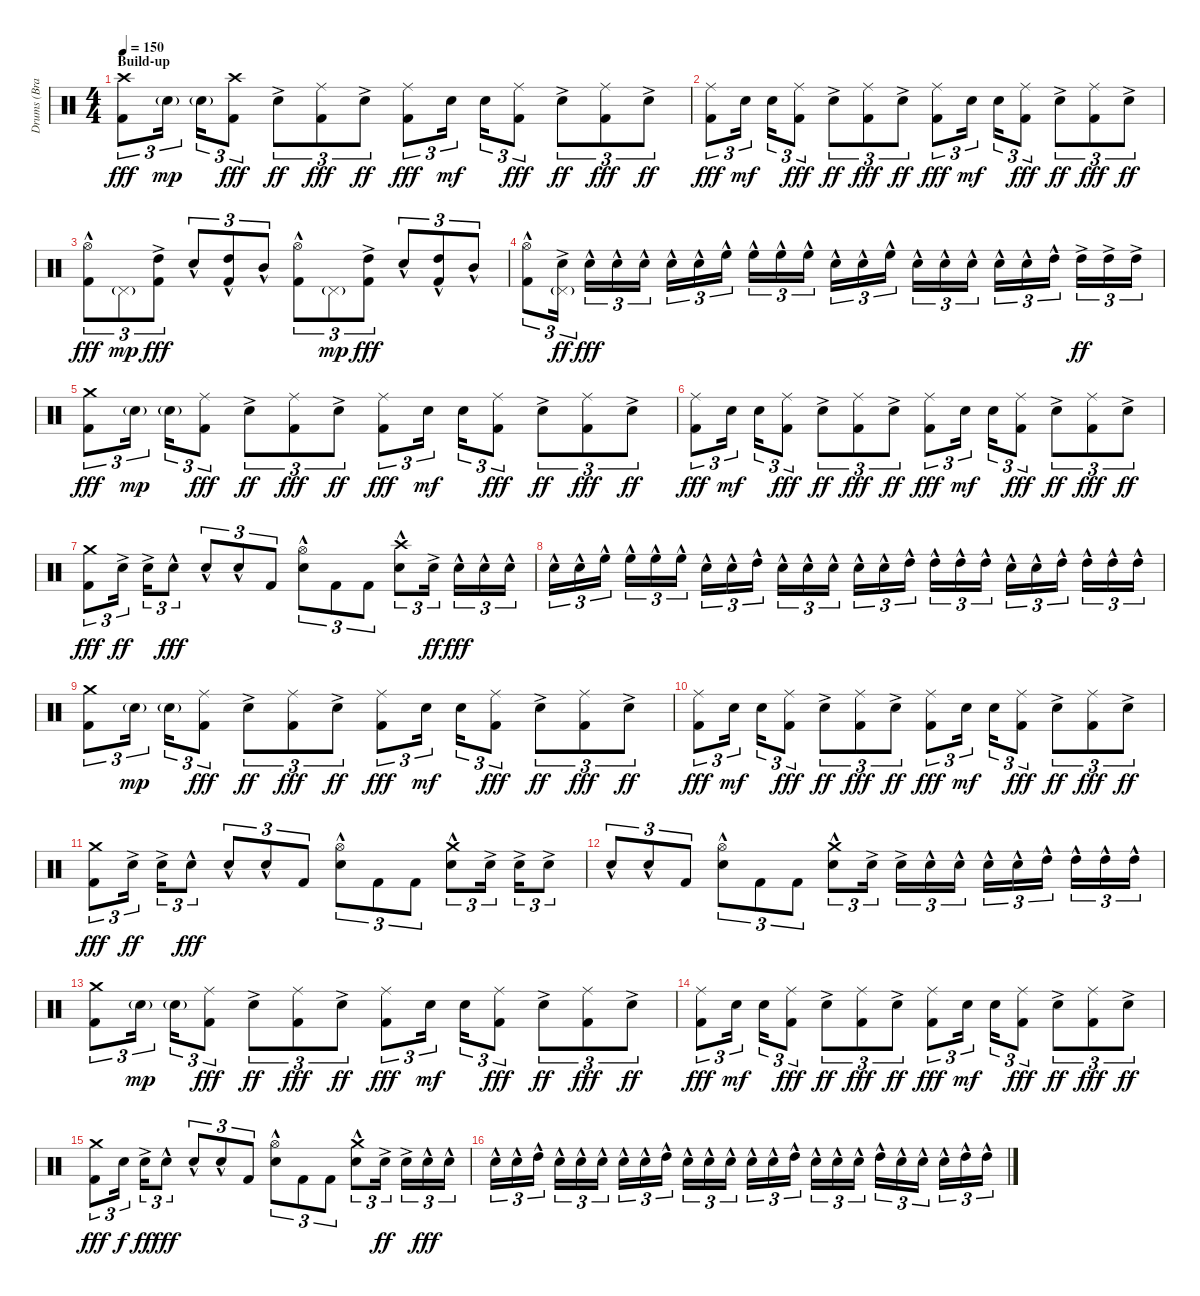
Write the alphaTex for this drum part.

\track ("Drums (Brann Dailor)" "Drums (Bra") {instrument percussion}
\staff {score}
\articulation defaults
\ts (4 4)
\section ("" "Build-up")
\tempo 150
\clef neutral
\ks c
("Crash high (hit)" "Kick (hit) 2").8{tu (3 2) dy fff} "Electric Snare (hit)"{g}.16{tu (3 2) dy mp beam splitsecondary} "Electric Snare (hit)"{g}.16{tu (3 2)} ("Crash high (hit)" "Kick (hit) 2").8{tu (3 2) dy fff} "Electric Snare (hit)"{ac}.8{tu (3 2) dy ff} ("Ride (middle)" "Kick (hit) 2").8{tu (3 2) dy fff} "Electric Snare (hit)"{ac}.8{tu (3 2) dy ff} ("Ride (middle)" "Kick (hit) 2").8{tu (3 2) dy fff} "Electric Snare (hit)".16{tu (3 2) dy mf beam splitsecondary} "Electric Snare (hit)".16{tu (3 2)} ("Ride (middle)" "Kick (hit) 2").8{tu (3 2) dy fff} "Electric Snare (hit)"{ac}.8{tu (3 2) dy ff} ("Ride (middle)" "Kick (hit) 2").8{tu (3 2) dy fff} "Electric Snare (hit)"{ac}.8{tu (3 2) dy ff} |
("Ride (middle)" "Kick (hit) 2").8{tu (3 2) dy fff} "Electric Snare (hit)".16{tu (3 2) dy mf beam splitsecondary} "Electric Snare (hit)".16{tu (3 2)} ("Ride (middle)" "Kick (hit) 2").8{tu (3 2) dy fff} "Electric Snare (hit)"{ac}.8{tu (3 2) dy ff} ("Ride (middle)" "Kick (hit) 2").8{tu (3 2) dy fff} "Electric Snare (hit)"{ac}.8{tu (3 2) dy ff} ("Ride (middle)" "Kick (hit) 2").8{tu (3 2) dy fff} "Electric Snare (hit)".16{tu (3 2) dy mf beam splitsecondary} "Electric Snare (hit)".16{tu (3 2)} ("Ride (middle)" "Kick (hit) 2").8{tu (3 2) dy fff} "Electric Snare (hit)"{ac}.8{tu (3 2) dy ff} ("Ride (middle)" "Kick (hit) 2").8{tu (3 2) dy fff} "Electric Snare (hit)"{ac}.8{tu (3 2) dy ff} |
("Hi-Hat (open)"{hac} "Kick (hit) 2").8{tu (3 2) dy fff} "Pedal Hi-Hat (hit)"{g}.8{tu (3 2) dy mp} ("High Tom (hit)"{ac} "Kick (hit) 2").8{tu (3 2) dy fff} "Electric Snare (hit)"{hac}.8{tu (3 2)} ("High Tom (hit)"{hac} "Kick (hit) 2").8{tu (3 2)} "Mid Tom (hit)"{hac}.8{tu (3 2)} ("Hi-Hat (open)"{hac} "Kick (hit) 2").8{tu (3 2)} "Pedal Hi-Hat (hit)"{g}.8{tu (3 2) dy mp} ("High Tom (hit)"{ac} "Kick (hit) 2").8{tu (3 2) dy fff} "Electric Snare (hit)"{hac}.8{tu (3 2)} ("High Tom (hit)"{hac} "Kick (hit) 2").8{tu (3 2)} "Mid Tom (hit)"{hac}.8{tu (3 2)} |
("Hi-Hat (open)"{hac} "Kick (hit) 2").8{tu (3 2)} ("Pedal Hi-Hat (hit)"{g} "Electric Snare (hit)"{ac}).16{tu (3 2) dy ff beam splitsecondary} "Electric Snare (hit)"{hac}.16{tu (3 2) dy fff} "Electric Snare (hit)"{hac}.16{tu (3 2)} "Electric Snare (hit)"{hac}.16{tu (3 2)} "Electric Snare (hit)"{hac}.16{tu (3 2)} "Electric Snare (hit)"{hac}.16{tu (3 2)} "High Floor Tom (hit)"{hac}.16{tu (3 2) beam splitsecondary} "High Floor Tom (hit)"{hac}.16{tu (3 2)} "High Floor Tom (hit)"{hac}.16{tu (3 2)} "High Floor Tom (hit)"{hac}.16{tu (3 2)} "Electric Snare (hit)"{hac}.16{tu (3 2)} "Electric Snare (hit)"{hac}.16{tu (3 2)} "High Floor Tom (hit)"{hac}.16{tu (3 2) beam splitsecondary} "Electric Snare (hit)"{hac}.16{tu (3 2)} "Electric Snare (hit)"{hac}.16{tu (3 2)} "Electric Snare (hit)"{hac}.16{tu (3 2)} "Electric Snare (hit)"{hac}.16{tu (3 2)} "Electric Snare (hit)"{hac}.16{tu (3 2)} "High Tom (hit)"{hac}.16{tu (3 2) beam splitsecondary} "High Tom (hit)"{ac}.16{tu (3 2) dy ff} "High Tom (hit)"{ac}.16{tu (3 2)} "High Tom (hit)"{ac}.16{tu (3 2)} |
("Crash medium (hit)" "Kick (hit) 2").8{tu (3 2) dy fff} "Electric Snare (hit)"{g}.16{tu (3 2) dy mp beam splitsecondary} "Electric Snare (hit)"{g}.16{tu (3 2)} ("Ride (middle)" "Kick (hit) 2").8{tu (3 2) dy fff} "Electric Snare (hit)"{ac}.8{tu (3 2) dy ff} ("Ride (middle)" "Kick (hit) 2").8{tu (3 2) dy fff} "Electric Snare (hit)"{ac}.8{tu (3 2) dy ff} ("Ride (middle)" "Kick (hit) 2").8{tu (3 2) dy fff} "Electric Snare (hit)".16{tu (3 2) dy mf beam splitsecondary} "Electric Snare (hit)".16{tu (3 2)} ("Ride (middle)" "Kick (hit) 2").8{tu (3 2) dy fff} "Electric Snare (hit)"{ac}.8{tu (3 2) dy ff} ("Ride (middle)" "Kick (hit) 2").8{tu (3 2) dy fff} "Electric Snare (hit)"{ac}.8{tu (3 2) dy ff} |
("Ride (middle)" "Kick (hit) 2").8{tu (3 2) dy fff} "Electric Snare (hit)".16{tu (3 2) dy mf beam splitsecondary} "Electric Snare (hit)".16{tu (3 2)} ("Ride (middle)" "Kick (hit) 2").8{tu (3 2) dy fff} "Electric Snare (hit)"{ac}.8{tu (3 2) dy ff} ("Ride (middle)" "Kick (hit) 2").8{tu (3 2) dy fff} "Electric Snare (hit)"{ac}.8{tu (3 2) dy ff} ("Ride (middle)" "Kick (hit) 2").8{tu (3 2) dy fff} "Electric Snare (hit)".16{tu (3 2) dy mf beam splitsecondary} "Electric Snare (hit)".16{tu (3 2)} ("Ride (middle)" "Kick (hit) 2").8{tu (3 2) dy fff} "Electric Snare (hit)"{ac}.8{tu (3 2) dy ff} ("Ride (middle)" "Kick (hit) 2").8{tu (3 2) dy fff} "Electric Snare (hit)"{ac}.8{tu (3 2) dy ff} |
("Crash medium (hit)" "Kick (hit) 2").8{tu (3 2) dy fff} "Electric Snare (hit)"{ac}.16{tu (3 2) dy ff beam splitsecondary} "Electric Snare (hit)"{ac}.16{tu (3 2)} "Electric Snare (hit)"{hac}.8{tu (3 2) dy fff} "Electric Snare (hit)"{hac}.8{tu (3 2)} "Electric Snare (hit)"{hac}.8{tu (3 2)} "Kick (hit) 2".8{tu (3 2)} ("Hi-Hat (open)"{hac} "Electric Snare (hit)"{hac}).8{tu (3 2)} "Kick (hit) 2".8{tu (3 2)} "Kick (hit) 2".8{tu (3 2)} ("Crash high (hit)" "Electric Snare (hit)"{hac}).8{tu (3 2)} "Electric Snare (hit)"{ac}.16{tu (3 2) dy ff beam splitsecondary} "Electric Snare (hit)"{hac}.16{tu (3 2) dy fff} "Electric Snare (hit)"{hac}.16{tu (3 2)} "Electric Snare (hit)"{hac}.16{tu (3 2)} |
"Electric Snare (hit)"{hac}.16{tu (3 2)} "Electric Snare (hit)"{hac}.16{tu (3 2)} "High Floor Tom (hit)"{hac}.16{tu (3 2) beam splitsecondary} "High Floor Tom (hit)"{hac}.16{tu (3 2)} "High Floor Tom (hit)"{hac}.16{tu (3 2)} "High Floor Tom (hit)"{hac}.16{tu (3 2)} "Electric Snare (hit)"{hac}.16{tu (3 2)} "Electric Snare (hit)"{hac}.16{tu (3 2)} "High Tom (hit)"{hac}.16{tu (3 2) beam splitsecondary} "Electric Snare (hit)"{hac}.16{tu (3 2)} "Electric Snare (hit)"{hac}.16{tu (3 2)} "Electric Snare (hit)"{hac}.16{tu (3 2)} "Electric Snare (hit)"{hac}.16{tu (3 2)} "Electric Snare (hit)"{hac}.16{tu (3 2)} "High Tom (hit)"{hac}.16{tu (3 2) beam splitsecondary} "High Tom (hit)"{hac}.16{tu (3 2)} "High Tom (hit)"{hac}.16{tu (3 2)} "High Tom (hit)"{hac}.16{tu (3 2)} "Electric Snare (hit)"{hac}.16{tu (3 2)} "Electric Snare (hit)"{hac}.16{tu (3 2)} "High Tom (hit)"{hac}.16{tu (3 2) beam splitsecondary} "High Tom (hit)"{hac}.16{tu (3 2)} "High Tom (hit)"{hac}.16{tu (3 2)} "High Tom (hit)"{hac}.16{tu (3 2)} |
("Crash medium (hit)" "Kick (hit) 2").8{tu (3 2)} "Electric Snare (hit)"{g}.16{tu (3 2) dy mp beam splitsecondary} "Electric Snare (hit)"{g}.16{tu (3 2)} ("Ride (middle)" "Kick (hit) 2").8{tu (3 2) dy fff} "Electric Snare (hit)"{ac}.8{tu (3 2) dy ff} ("Ride (middle)" "Kick (hit) 2").8{tu (3 2) dy fff} "Electric Snare (hit)"{ac}.8{tu (3 2) dy ff} ("Ride (middle)" "Kick (hit) 2").8{tu (3 2) dy fff} "Electric Snare (hit)".16{tu (3 2) dy mf beam splitsecondary} "Electric Snare (hit)".16{tu (3 2)} ("Ride (middle)" "Kick (hit) 2").8{tu (3 2) dy fff} "Electric Snare (hit)"{ac}.8{tu (3 2) dy ff} ("Ride (middle)" "Kick (hit) 2").8{tu (3 2) dy fff} "Electric Snare (hit)"{ac}.8{tu (3 2) dy ff} |
("Ride (middle)" "Kick (hit) 2").8{tu (3 2) dy fff} "Electric Snare (hit)".16{tu (3 2) dy mf beam splitsecondary} "Electric Snare (hit)".16{tu (3 2)} ("Ride (middle)" "Kick (hit) 2").8{tu (3 2) dy fff} "Electric Snare (hit)"{ac}.8{tu (3 2) dy ff} ("Ride (middle)" "Kick (hit) 2").8{tu (3 2) dy fff} "Electric Snare (hit)"{ac}.8{tu (3 2) dy ff} ("Ride (middle)" "Kick (hit) 2").8{tu (3 2) dy fff} "Electric Snare (hit)".16{tu (3 2) dy mf beam splitsecondary} "Electric Snare (hit)".16{tu (3 2)} ("Ride (middle)" "Kick (hit) 2").8{tu (3 2) dy fff} "Electric Snare (hit)"{ac}.8{tu (3 2) dy ff} ("Ride (middle)" "Kick (hit) 2").8{tu (3 2) dy fff} "Electric Snare (hit)"{ac}.8{tu (3 2) dy ff} |
("Crash medium (hit)" "Kick (hit) 2").8{tu (3 2) dy fff} "Electric Snare (hit)"{ac}.16{tu (3 2) dy ff beam splitsecondary} "Electric Snare (hit)"{ac}.16{tu (3 2)} "Electric Snare (hit)"{hac}.8{tu (3 2) dy fff} "Electric Snare (hit)"{hac}.8{tu (3 2)} "Electric Snare (hit)"{hac}.8{tu (3 2)} "Kick (hit) 2".8{tu (3 2)} ("Hi-Hat (open)"{hac} "Electric Snare (hit)"{hac}).8{tu (3 2)} "Kick (hit) 2".8{tu (3 2)} "Kick (hit) 2".8{tu (3 2)} ("Crash medium (hit)" "Electric Snare (hit)"{hac}).8{tu (3 2)} "Electric Snare (hit)"{ac}.16{tu (3 2) beam splitsecondary} "Electric Snare (hit)"{ac}.16{tu (3 2)} "Electric Snare (hit)"{ac}.8{tu (3 2)} |
"Electric Snare (hit)"{hac}.8{tu (3 2)} "Electric Snare (hit)"{hac}.8{tu (3 2)} "Kick (hit) 2".8{tu (3 2)} ("Hi-Hat (open)"{hac} "Electric Snare (hit)"{hac}).8{tu (3 2)} "Kick (hit) 2".8{tu (3 2)} "Kick (hit) 2".8{tu (3 2)} ("Crash medium (hit)" "Electric Snare (hit)"{hac}).8{tu (3 2)} "Electric Snare (hit)"{ac}.16{tu (3 2) beam splitsecondary} "Electric Snare (hit)"{ac}.16{tu (3 2)} "Electric Snare (hit)"{hac}.16{tu (3 2)} "Electric Snare (hit)"{hac}.16{tu (3 2)} "Electric Snare (hit)"{hac}.16{tu (3 2)} "Electric Snare (hit)"{hac}.16{tu (3 2)} "High Tom (hit)"{hac}.16{tu (3 2) beam splitsecondary} "High Tom (hit)"{hac}.16{tu (3 2)} "High Tom (hit)"{hac}.16{tu (3 2)} "High Tom (hit)"{hac}.16{tu (3 2)} |
("Crash medium (hit)" "Kick (hit) 2").8{tu (3 2)} "Electric Snare (hit)"{g}.16{tu (3 2) dy mp beam splitsecondary} "Electric Snare (hit)"{g}.16{tu (3 2)} ("Ride (middle)" "Kick (hit) 2").8{tu (3 2) dy fff} "Electric Snare (hit)"{ac}.8{tu (3 2) dy ff} ("Ride (middle)" "Kick (hit) 2").8{tu (3 2) dy fff} "Electric Snare (hit)"{ac}.8{tu (3 2) dy ff} ("Ride (middle)" "Kick (hit) 2").8{tu (3 2) dy fff} "Electric Snare (hit)".16{tu (3 2) dy mf beam splitsecondary} "Electric Snare (hit)".16{tu (3 2)} ("Ride (middle)" "Kick (hit) 2").8{tu (3 2) dy fff} "Electric Snare (hit)"{ac}.8{tu (3 2) dy ff} ("Ride (middle)" "Kick (hit) 2").8{tu (3 2) dy fff} "Electric Snare (hit)"{ac}.8{tu (3 2) dy ff} |
("Ride (middle)" "Kick (hit) 2").8{tu (3 2) dy fff} "Electric Snare (hit)".16{tu (3 2) dy mf beam splitsecondary} "Electric Snare (hit)".16{tu (3 2)} ("Ride (middle)" "Kick (hit) 2").8{tu (3 2) dy fff} "Electric Snare (hit)"{ac}.8{tu (3 2) dy ff} ("Ride (middle)" "Kick (hit) 2").8{tu (3 2) dy fff} "Electric Snare (hit)"{ac}.8{tu (3 2) dy ff} ("Ride (middle)" "Kick (hit) 2").8{tu (3 2) dy fff} "Electric Snare (hit)".16{tu (3 2) dy mf beam splitsecondary} "Electric Snare (hit)".16{tu (3 2)} ("Ride (middle)" "Kick (hit) 2").8{tu (3 2) dy fff} "Electric Snare (hit)"{ac}.8{tu (3 2) dy ff} ("Ride (middle)" "Kick (hit) 2").8{tu (3 2) dy fff} "Electric Snare (hit)"{ac}.8{tu (3 2) dy ff} |
("Crash medium (hit)" "Kick (hit) 2").8{tu (3 2) dy fff} "Electric Snare (hit)".16{tu (3 2) dy f beam splitsecondary} "Electric Snare (hit)"{ac}.16{tu (3 2) dy ff} "Electric Snare (hit)"{hac}.8{tu (3 2) dy fff} "Electric Snare (hit)"{hac}.8{tu (3 2)} "Electric Snare (hit)"{hac}.8{tu (3 2)} "Kick (hit) 2".8{tu (3 2)} ("Hi-Hat (open)"{hac} "Electric Snare (hit)"{hac}).8{tu (3 2)} "Kick (hit) 2".8{tu (3 2)} "Kick (hit) 2".8{tu (3 2)} ("Crash medium (hit)" "Electric Snare (hit)"{hac}).8{tu (3 2)} "Electric Snare (hit)"{ac}.16{tu (3 2) dy ff beam splitsecondary} "Electric Snare (hit)"{ac}.16{tu (3 2)} "Electric Snare (hit)"{hac}.16{tu (3 2) dy fff} "Electric Snare (hit)"{hac}.16{tu (3 2)} |
"Electric Snare (hit)"{hac}.16{tu (3 2)} "Electric Snare (hit)"{hac}.16{tu (3 2)} "High Tom (hit)"{hac}.16{tu (3 2) beam splitsecondary} "Electric Snare (hit)"{hac}.16{tu (3 2)} "Electric Snare (hit)"{hac}.16{tu (3 2)} "Electric Snare (hit)"{hac}.16{tu (3 2)} "Electric Snare (hit)"{hac}.16{tu (3 2)} "Electric Snare (hit)"{hac}.16{tu (3 2)} "High Tom (hit)"{hac}.16{tu (3 2) beam splitsecondary} "Electric Snare (hit)"{hac}.16{tu (3 2)} "Electric Snare (hit)"{hac}.16{tu (3 2)} "Electric Snare (hit)"{hac}.16{tu (3 2)} "Electric Snare (hit)"{hac}.16{tu (3 2)} "Electric Snare (hit)"{hac}.16{tu (3 2)} "High Tom (hit)"{hac}.16{tu (3 2) beam splitsecondary} "Electric Snare (hit)"{hac}.16{tu (3 2)} "Electric Snare (hit)"{hac}.16{tu (3 2)} "Electric Snare (hit)"{hac}.16{tu (3 2)} "High Tom (hit)"{hac}.16{tu (3 2)} "Electric Snare (hit)"{hac}.16{tu (3 2)} "Electric Snare (hit)"{hac}.16{tu (3 2) beam splitsecondary} "Electric Snare (hit)"{hac}.16{tu (3 2)} "High Tom (hit)"{hac}.16{tu (3 2)} "High Tom (hit)"{hac}.16{tu (3 2)}
